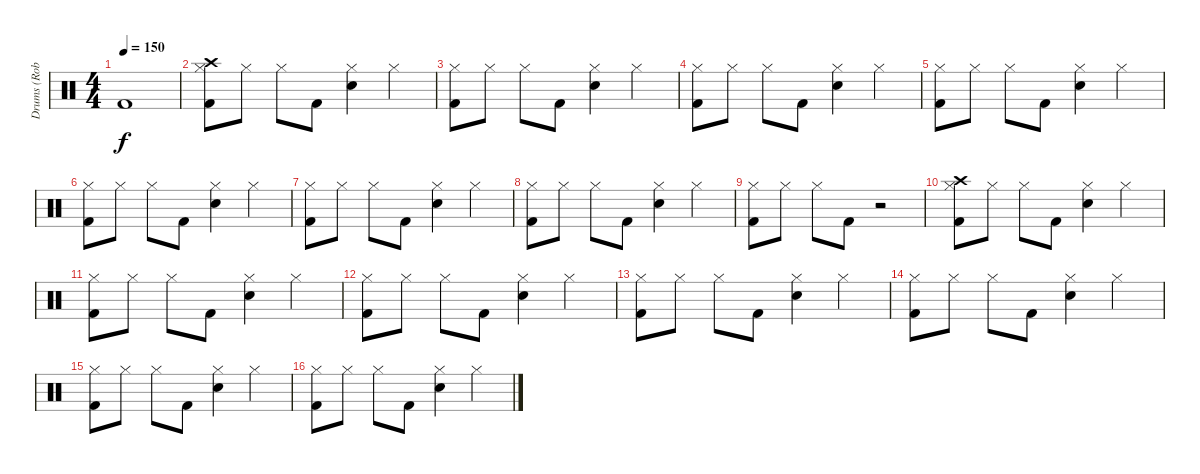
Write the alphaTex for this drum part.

\track ("Drums (Rob)" "Drums (Rob") {instrument percussion}
\staff {score}
\articulation defaults
\ts (4 4)
\tempo 150
\clef neutral
\ks c "Kick (hit) 2".1{dy f}
|
("Crash high (hit)" "Hi-Hat (closed)" "Kick (hit) 2").8 "Hi-Hat (closed)".8 "Hi-Hat (closed)".8 "Kick (hit) 2".8 ("Hi-Hat (closed)" "Hand Clap (hit)").4 "Hi-Hat (closed)".4 |
("Hi-Hat (closed)" "Kick (hit) 2").8 "Hi-Hat (closed)".8 "Hi-Hat (closed)".8 "Kick (hit) 2".8 ("Hi-Hat (closed)" "Hand Clap (hit)").4 "Hi-Hat (closed)".4 |
("Hi-Hat (closed)" "Kick (hit) 2").8 "Hi-Hat (closed)".8 "Hi-Hat (closed)".8 "Kick (hit) 2".8 ("Hi-Hat (closed)" "Hand Clap (hit)").4 "Hi-Hat (closed)".4 |
("Hi-Hat (closed)" "Kick (hit) 2").8 "Hi-Hat (closed)".8 "Hi-Hat (closed)".8 "Kick (hit) 2".8 ("Hi-Hat (closed)" "Hand Clap (hit)").4 "Hi-Hat (closed)".4 |
("Hi-Hat (closed)" "Kick (hit) 2").8 "Hi-Hat (closed)".8 "Hi-Hat (closed)".8 "Kick (hit) 2".8 ("Hi-Hat (closed)" "Hand Clap (hit)").4 "Hi-Hat (closed)".4 |
("Hi-Hat (closed)" "Kick (hit) 2").8 "Hi-Hat (closed)".8 "Hi-Hat (closed)".8 "Kick (hit) 2".8 ("Hi-Hat (closed)" "Hand Clap (hit)").4 "Hi-Hat (closed)".4 |
("Hi-Hat (closed)" "Kick (hit) 2").8 "Hi-Hat (closed)".8 "Hi-Hat (closed)".8 "Kick (hit) 2".8 ("Hi-Hat (closed)" "Hand Clap (hit)").4 "Hi-Hat (closed)".4 |
("Hi-Hat (closed)" "Kick (hit) 2").8 "Hi-Hat (closed)".8 "Hi-Hat (closed)".8 "Kick (hit) 2".8 r.2 |
("Crash high (hit)" "Hi-Hat (closed)" "Kick (hit) 2").8 "Hi-Hat (closed)".8 "Hi-Hat (closed)".8 "Kick (hit) 2".8 ("Hi-Hat (closed)" "Snare (hit) 2").4 "Hi-Hat (closed)".4 |
("Hi-Hat (closed)" "Kick (hit) 2").8 "Hi-Hat (closed)".8 "Hi-Hat (closed)".8 "Kick (hit) 2".8 ("Hi-Hat (closed)" "Snare (hit) 2").4 "Hi-Hat (closed)".4 |
("Hi-Hat (closed)" "Kick (hit) 2").8 "Hi-Hat (closed)".8 "Hi-Hat (closed)".8 "Kick (hit) 2".8 ("Hi-Hat (closed)" "Snare (hit) 2").4 "Hi-Hat (closed)".4 |
("Hi-Hat (closed)" "Kick (hit) 2").8 "Hi-Hat (closed)".8 "Hi-Hat (closed)".8 "Kick (hit) 2".8 ("Hi-Hat (closed)" "Snare (hit) 2").4 "Hi-Hat (closed)".4 |
("Hi-Hat (closed)" "Kick (hit) 2").8 "Hi-Hat (closed)".8 "Hi-Hat (closed)".8 "Kick (hit) 2".8 ("Hi-Hat (closed)" "Snare (hit) 2").4 "Hi-Hat (closed)".4 |
("Hi-Hat (closed)" "Kick (hit) 2").8 "Hi-Hat (closed)".8 "Hi-Hat (closed)".8 "Kick (hit) 2".8 ("Hi-Hat (closed)" "Snare (hit) 2").4 "Hi-Hat (closed)".4 |
("Hi-Hat (closed)" "Kick (hit) 2").8 "Hi-Hat (closed)".8 "Hi-Hat (closed)".8 "Kick (hit) 2".8 ("Hi-Hat (closed)" "Snare (hit) 2").4 "Hi-Hat (closed)".4
